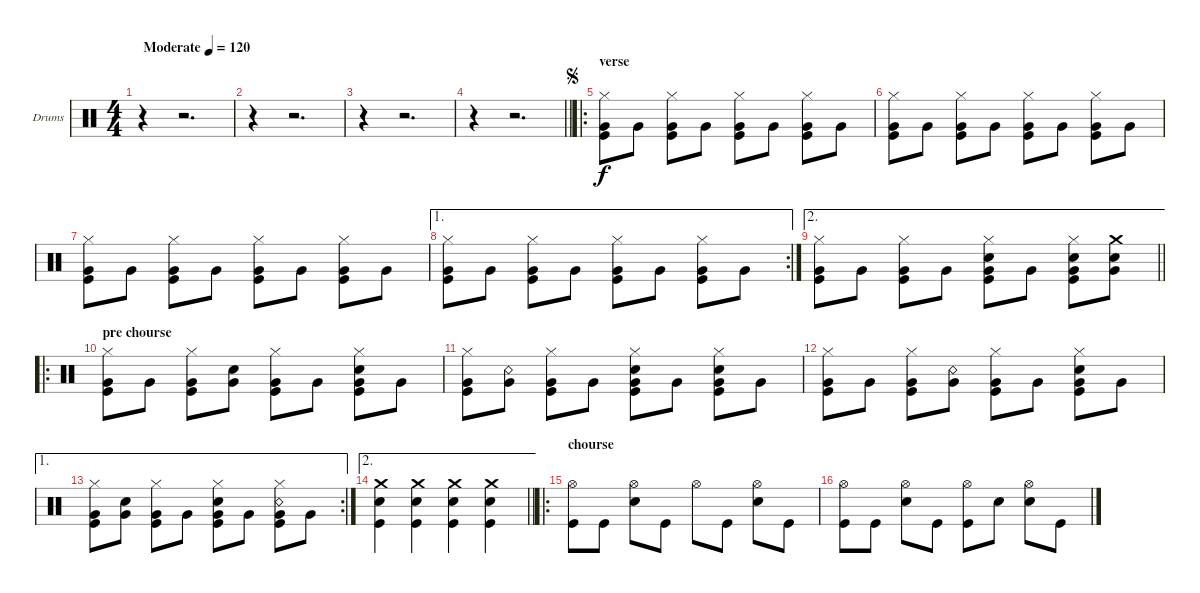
\bracketExtendMode groupsimilarinstruments
\firstSystemTrackNameOrientation horizontal
\otherSystemsTrackNameOrientation horizontal
\track ("Drumkit" "Drums") {instrument percussion}
\staff {score}
\articulation defaults
\ts (4 4)
\beaming (8 2 2 2 2)
\tempo (120 "Moderate")
\clef neutral
\ks c
r.4{dy f} r.2{d} |
r.4 r.2{d} |
r.4 r.2{d} |
\barLineRight lightlight
r.4 r.2{d} |
\ro
\section ("" "verse")
\jump segno
("Hi-Hat (closed)" "Very Low Tom (hit)" "Kick (hit)").8 "Very Low Tom (hit)".8 ("Hi-Hat (closed)" "Very Low Tom (hit)" "Kick (hit)").8 "Very Low Tom (hit)".8 ("Hi-Hat (closed)" "Very Low Tom (hit)" "Kick (hit)").8 "Very Low Tom (hit)".8 ("Hi-Hat (closed)" "Very Low Tom (hit)" "Kick (hit)").8 "Very Low Tom (hit)".8 |
("Hi-Hat (closed)" "Very Low Tom (hit)" "Kick (hit)").8 "Very Low Tom (hit)".8 ("Hi-Hat (closed)" "Very Low Tom (hit)" "Kick (hit)").8 "Very Low Tom (hit)".8 ("Hi-Hat (closed)" "Very Low Tom (hit)" "Kick (hit)").8 "Very Low Tom (hit)".8 ("Hi-Hat (closed)" "Very Low Tom (hit)" "Kick (hit)").8 "Very Low Tom (hit)".8 |
("Hi-Hat (closed)" "Very Low Tom (hit)" "Kick (hit)").8 "Very Low Tom (hit)".8 ("Hi-Hat (closed)" "Very Low Tom (hit)" "Kick (hit)").8 "Very Low Tom (hit)".8 ("Hi-Hat (closed)" "Very Low Tom (hit)" "Kick (hit)").8 "Very Low Tom (hit)".8 ("Hi-Hat (closed)" "Very Low Tom (hit)" "Kick (hit)").8 "Very Low Tom (hit)".8 |
\ae 1
\rc 2
("Hi-Hat (closed)" "Very Low Tom (hit)" "Kick (hit)").8 "Very Low Tom (hit)".8 ("Hi-Hat (closed)" "Very Low Tom (hit)" "Kick (hit)").8 "Very Low Tom (hit)".8 ("Hi-Hat (closed)" "Very Low Tom (hit)" "Kick (hit)").8 "Very Low Tom (hit)".8 ("Hi-Hat (closed)" "Very Low Tom (hit)" "Kick (hit)").8 "Very Low Tom (hit)".8 |
\ae 2
\barLineRight lightlight
("Hi-Hat (closed)" "Very Low Tom (hit)" "Kick (hit)").8 "Very Low Tom (hit)".8 ("Hi-Hat (closed)" "Very Low Tom (hit)" "Kick (hit)").8 "Very Low Tom (hit)".8 ("Hi-Hat (closed)" "Very Low Tom (hit)" "Snare (hit) 2" "Kick (hit)").8 "Very Low Tom (hit)".8 ("Hi-Hat (closed)" "Very Low Tom (hit)" "Snare (hit) 2" "Kick (hit)").8 ("Crash medium (hit)" "Very Low Tom (hit)" "Snare (hit) 2").8 |
\ro
\section ("" "pre chourse")
("Hi-Hat (closed)" "Very Low Tom (hit)" "Kick (hit)").8 "Very Low Tom (hit)".8 ("Hi-Hat (closed)" "Very Low Tom (hit)" "Kick (hit)").8 ("Very Low Tom (hit)" "Snare (hit) 2").8 ("Hi-Hat (closed)" "Very Low Tom (hit)" "Kick (hit)").8 "Very Low Tom (hit)".8 ("Hi-Hat (closed)" "Very Low Tom (hit)" "Snare (hit) 2" "Kick (hit)").8 "Very Low Tom (hit)".8 |
("Hi-Hat (closed)" "Very Low Tom (hit)" "Kick (hit)").8 ("Very Low Tom (hit)" "Snare (rim shot)").8 ("Hi-Hat (closed)" "Very Low Tom (hit)" "Kick (hit)").8 "Very Low Tom (hit)".8 ("Hi-Hat (closed)" "Very Low Tom (hit)" "Snare (hit) 2" "Kick (hit)").8 "Very Low Tom (hit)".8 ("Hi-Hat (closed)" "Very Low Tom (hit)" "Snare (hit) 2" "Kick (hit)").8 "Very Low Tom (hit)".8 |
("Hi-Hat (closed)" "Very Low Tom (hit)" "Kick (hit)").8 "Very Low Tom (hit)".8 ("Hi-Hat (closed)" "Very Low Tom (hit)" "Kick (hit)").8 ("Very Low Tom (hit)" "Snare (rim shot)").8 ("Hi-Hat (closed)" "Very Low Tom (hit)" "Kick (hit)").8 "Very Low Tom (hit)".8 ("Hi-Hat (closed)" "Very Low Tom (hit)" "Snare (hit) 2" "Kick (hit)").8 "Very Low Tom (hit)".8 |
\ae 1
\rc 2
("Hi-Hat (closed)" "Very Low Tom (hit)" "Kick (hit)").8 ("Very Low Tom (hit)" "Snare (hit) 2").8 ("Hi-Hat (closed)" "Very Low Tom (hit)" "Kick (hit)").8 "Very Low Tom (hit)".8 ("Hi-Hat (closed)" "Very Low Tom (hit)" "Snare (hit) 2" "Kick (hit)").8 "Very Low Tom (hit)".8 ("Hi-Hat (closed)" "Very Low Tom (hit)" "Snare (rim shot)" "Kick (hit)").8 "Very Low Tom (hit)".8 |
\ae 2
\barLineRight lightlight
("Crash medium (hit)" "Snare (hit) 2" "Kick (hit)").4 ("Crash medium (hit)" "Snare (hit) 2" "Kick (hit)").4 ("Crash medium (hit)" "Snare (hit) 2" "Kick (hit)").4 ("Crash medium (hit)" "Snare (hit) 2" "Kick (hit)").4 |
\ro
\section ("" "chourse")
("Hi-Hat (open)" "Kick (hit)").8 "Kick (hit)".8 ("Hi-Hat (open)" "Snare (hit) 2").8 "Kick (hit)".8 "Hi-Hat (open)".8 "Kick (hit)".8 ("Hi-Hat (open)" "Snare (hit) 2").8 "Kick (hit)".8 |
("Hi-Hat (open)" "Kick (hit)").8 "Kick (hit)".8 ("Hi-Hat (open)" "Snare (hit) 2").8 "Kick (hit)".8 ("Hi-Hat (open)" "Kick (hit)").8 "Snare (hit) 2".8 ("Hi-Hat (open)" "Snare (hit) 2").8 "Kick (hit)".8
